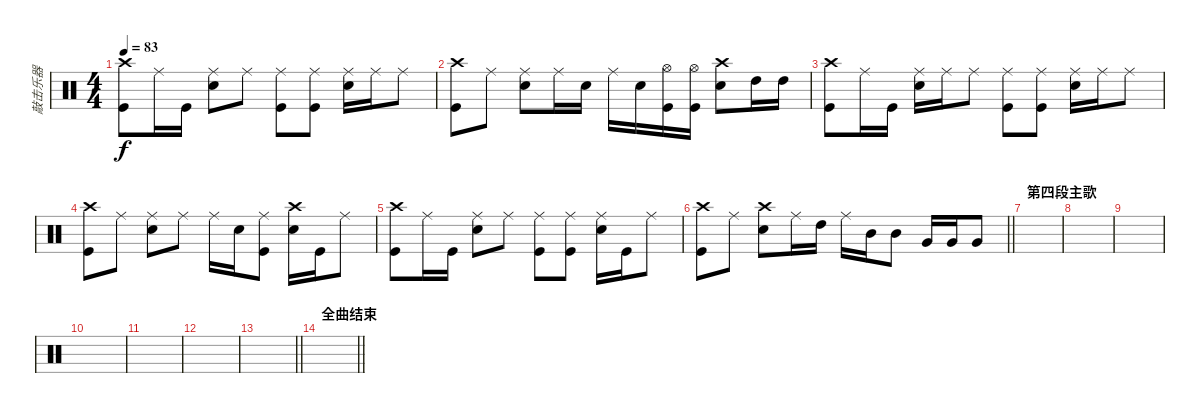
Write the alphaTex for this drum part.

\track ("敲击乐器" "敲击乐器") {mute instrument percussion}
\staff {score}
\articulation defaults
\ts (4 4)
\tempo 83
\clef neutral
\ks c
("Crash high (hit)" "Kick (hit)").8{dy f} "Ride (middle)".16 "Kick (hit)".16 ("Ride (middle)" "Snare (hit) 2").8 "Ride (middle)".8 ("Ride (middle)" "Kick (hit)").8 ("Ride (middle)" "Kick (hit)").8 ("Ride (middle)" "Snare (hit) 2").16 "Ride (middle)".16 "Ride (middle)".8 |
("Crash high (hit)" "Kick (hit)").8 "Ride (middle)".8 ("Ride (middle)" "Snare (hit) 2").8 "Ride (middle)".16 "Snare (hit) 2".16 "Ride (middle)".16 "Snare (hit) 2".16 ("Hi-Hat (open)" "Kick (hit)").16 ("Kick (hit)" "Hi-Hat (open)").16 ("Crash high (hit)" "Snare (hit) 2").8 "High Tom (hit)".16 "High Tom (hit)".16 |
("Crash high (hit)" "Kick (hit)").8 "Ride (middle)".16 "Kick (hit)".16 ("Snare (hit) 2" "Ride (middle)").16 "Ride (middle)".16 "Ride (middle)".8 ("Ride (middle)" "Kick (hit)").8 ("Ride (middle)" "Kick (hit)").8 ("Ride (middle)" "Snare (hit) 2").16 "Ride (middle)".16 "Ride (middle)".8 |
("Crash high (hit)" "Kick (hit)").8 "Ride (middle)".8 ("Ride (middle)" "Snare (hit) 2").8 "Ride (middle)".8 "Ride (middle)".16 "Snare (hit) 2".16 ("Ride (middle)" "Kick (hit)").8 ("Crash high (hit)" "Snare (hit) 2").16 "Kick (hit)".16 "Ride (middle)".8 |
("Crash high (hit)" "Kick (hit)").8 "Ride (middle)".16 "Kick (hit)".16 ("Snare (hit) 2" "Ride (middle)").8 "Ride (middle)".8 ("Ride (middle)" "Kick (hit)").8 ("Ride (middle)" "Kick (hit)").8 ("Ride (middle)" "Snare (hit) 2").16 "Kick (hit)".16 "Ride (middle)".8 |
\barLineRight lightlight
("Crash high (hit)" "Kick (hit)").8 "Ride (middle)".8 ("Crash high (hit)" "Snare (hit) 2").8 "Ride (middle)".16 "High Tom (hit)".16 "Ride (middle)".16 "Mid Tom (hit)".16 "Mid Tom (hit)".8 "Very Low Tom (hit)".16 "Very Low Tom (hit)".16 "Very Low Tom (hit)".8 |
\section ("" "第四段主歌")
|
|
|
|
|
|
\barLineRight lightlight
|
\section ("" "全曲结束")
\barLineRight lightlight
